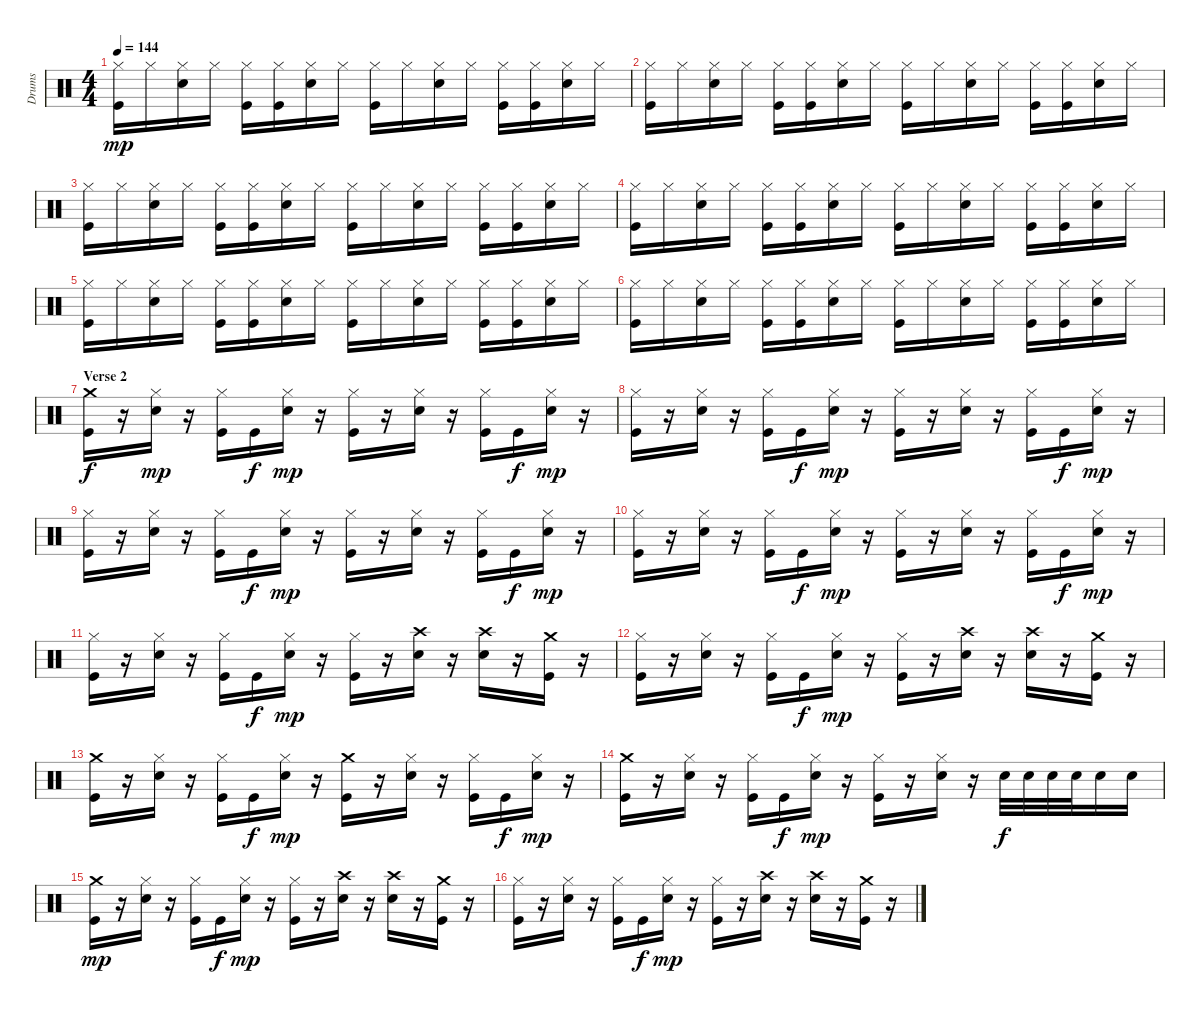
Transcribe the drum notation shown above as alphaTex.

\track ("Drums" "Drums") {instrument percussion}
\staff {score}
\articulation defaults
\ts (4 4)
\tempo 144
\clef neutral
\ks c
("Hi-Hat (closed)" "Kick (hit)").16{dy mp} "Hi-Hat (closed)".16 ("Hi-Hat (closed)" "Electric Snare (hit)").16 "Hi-Hat (closed)".16 ("Hi-Hat (closed)" "Kick (hit)").16 ("Hi-Hat (closed)" "Kick (hit)").16 ("Hi-Hat (closed)" "Electric Snare (hit)").16 "Hi-Hat (closed)".16 ("Hi-Hat (closed)" "Kick (hit)").16 "Hi-Hat (closed)".16 ("Hi-Hat (closed)" "Electric Snare (hit)").16 "Hi-Hat (closed)".16 ("Hi-Hat (closed)" "Kick (hit)").16 ("Hi-Hat (closed)" "Kick (hit)").16 ("Hi-Hat (closed)" "Electric Snare (hit)").16 "Hi-Hat (closed)".16 |
("Hi-Hat (closed)" "Kick (hit)").16 "Hi-Hat (closed)".16 ("Hi-Hat (closed)" "Electric Snare (hit)").16 "Hi-Hat (closed)".16 ("Hi-Hat (closed)" "Kick (hit)").16 ("Hi-Hat (closed)" "Kick (hit)").16 ("Hi-Hat (closed)" "Electric Snare (hit)").16 "Hi-Hat (closed)".16 ("Hi-Hat (closed)" "Kick (hit)").16 "Hi-Hat (closed)".16 ("Hi-Hat (closed)" "Electric Snare (hit)").16 "Hi-Hat (closed)".16 ("Hi-Hat (closed)" "Kick (hit)").16 ("Hi-Hat (closed)" "Kick (hit)").16 ("Hi-Hat (closed)" "Electric Snare (hit)").16 "Hi-Hat (closed)".16 |
("Hi-Hat (closed)" "Kick (hit)").16 "Hi-Hat (closed)".16 ("Hi-Hat (closed)" "Electric Snare (hit)").16 "Hi-Hat (closed)".16 ("Hi-Hat (closed)" "Kick (hit)").16 ("Hi-Hat (closed)" "Kick (hit)").16 ("Hi-Hat (closed)" "Electric Snare (hit)").16 "Hi-Hat (closed)".16 ("Hi-Hat (closed)" "Kick (hit)").16 "Hi-Hat (closed)".16 ("Hi-Hat (closed)" "Electric Snare (hit)").16 "Hi-Hat (closed)".16 ("Hi-Hat (closed)" "Kick (hit)").16 ("Hi-Hat (closed)" "Kick (hit)").16 ("Hi-Hat (closed)" "Electric Snare (hit)").16 "Hi-Hat (closed)".16 |
("Hi-Hat (closed)" "Kick (hit)").16 "Hi-Hat (closed)".16 ("Hi-Hat (closed)" "Electric Snare (hit)").16 "Hi-Hat (closed)".16 ("Hi-Hat (closed)" "Kick (hit)").16 ("Hi-Hat (closed)" "Kick (hit)").16 ("Hi-Hat (closed)" "Electric Snare (hit)").16 "Hi-Hat (closed)".16 ("Hi-Hat (closed)" "Kick (hit)").16 "Hi-Hat (closed)".16 ("Hi-Hat (closed)" "Electric Snare (hit)").16 "Hi-Hat (closed)".16 ("Hi-Hat (closed)" "Kick (hit)").16 ("Hi-Hat (closed)" "Kick (hit)").16 ("Hi-Hat (closed)" "Electric Snare (hit)").16 "Hi-Hat (closed)".16 |
("Hi-Hat (closed)" "Kick (hit)").16 "Hi-Hat (closed)".16 ("Hi-Hat (closed)" "Electric Snare (hit)").16 "Hi-Hat (closed)".16 ("Hi-Hat (closed)" "Kick (hit)").16 ("Hi-Hat (closed)" "Kick (hit)").16 ("Hi-Hat (closed)" "Electric Snare (hit)").16 "Hi-Hat (closed)".16 ("Hi-Hat (closed)" "Kick (hit)").16 "Hi-Hat (closed)".16 ("Hi-Hat (closed)" "Electric Snare (hit)").16 "Hi-Hat (closed)".16 ("Hi-Hat (closed)" "Kick (hit)").16 ("Hi-Hat (closed)" "Kick (hit)").16 ("Hi-Hat (closed)" "Electric Snare (hit)").16 "Hi-Hat (closed)".16 |
("Hi-Hat (closed)" "Kick (hit)").16 "Hi-Hat (closed)".16 ("Hi-Hat (closed)" "Electric Snare (hit)").16 "Hi-Hat (closed)".16 ("Hi-Hat (closed)" "Kick (hit)").16 ("Hi-Hat (closed)" "Kick (hit)").16 ("Hi-Hat (closed)" "Electric Snare (hit)").16 "Hi-Hat (closed)".16 ("Hi-Hat (closed)" "Kick (hit)").16 "Hi-Hat (closed)".16 ("Hi-Hat (closed)" "Electric Snare (hit)").16 "Hi-Hat (closed)".16 ("Hi-Hat (closed)" "Kick (hit)").16 ("Hi-Hat (closed)" "Kick (hit)").16 ("Hi-Hat (closed)" "Electric Snare (hit)").16 "Hi-Hat (closed)".16 |
\section ("" "Verse 2")
("Crash medium (hit)" "Kick (hit)").16{dy f} r.16 ("Hi-Hat (closed)" "Electric Snare (hit)").16{dy mp} r.16 ("Hi-Hat (closed)" "Kick (hit)").16 "Kick (hit)".16{dy f} ("Hi-Hat (closed)" "Electric Snare (hit)").16{dy mp} r.16 ("Hi-Hat (closed)" "Kick (hit)").16 r.16 ("Hi-Hat (closed)" "Electric Snare (hit)").16 r.16 ("Hi-Hat (closed)" "Kick (hit)").16 "Kick (hit)".16{dy f} ("Hi-Hat (closed)" "Electric Snare (hit)").16{dy mp} r.16 |
("Hi-Hat (closed)" "Kick (hit)").16 r.16 ("Hi-Hat (closed)" "Electric Snare (hit)").16 r.16 ("Hi-Hat (closed)" "Kick (hit)").16 "Kick (hit)".16{dy f} ("Hi-Hat (closed)" "Electric Snare (hit)").16{dy mp} r.16 ("Hi-Hat (closed)" "Kick (hit)").16 r.16 ("Hi-Hat (closed)" "Electric Snare (hit)").16 r.16 ("Hi-Hat (closed)" "Kick (hit)").16 "Kick (hit)".16{dy f} ("Hi-Hat (closed)" "Electric Snare (hit)").16{dy mp} r.16 |
("Hi-Hat (closed)" "Kick (hit)").16 r.16 ("Hi-Hat (closed)" "Electric Snare (hit)").16 r.16 ("Hi-Hat (closed)" "Kick (hit)").16 "Kick (hit)".16{dy f} ("Hi-Hat (closed)" "Electric Snare (hit)").16{dy mp} r.16 ("Hi-Hat (closed)" "Kick (hit)").16 r.16 ("Hi-Hat (closed)" "Electric Snare (hit)").16 r.16 ("Hi-Hat (closed)" "Kick (hit)").16 "Kick (hit)".16{dy f} ("Hi-Hat (closed)" "Electric Snare (hit)").16{dy mp} r.16 |
("Hi-Hat (closed)" "Kick (hit)").16 r.16 ("Hi-Hat (closed)" "Electric Snare (hit)").16 r.16 ("Hi-Hat (closed)" "Kick (hit)").16 "Kick (hit)".16{dy f} ("Hi-Hat (closed)" "Electric Snare (hit)").16{dy mp} r.16 ("Hi-Hat (closed)" "Kick (hit)").16 r.16 ("Hi-Hat (closed)" "Electric Snare (hit)").16 r.16 ("Hi-Hat (closed)" "Kick (hit)").16 "Kick (hit)".16{dy f} ("Hi-Hat (closed)" "Electric Snare (hit)").16{dy mp} r.16 |
("Hi-Hat (closed)" "Kick (hit)").16 r.16 ("Hi-Hat (closed)" "Electric Snare (hit)").16 r.16 ("Hi-Hat (closed)" "Kick (hit)").16 "Kick (hit)".16{dy f} ("Hi-Hat (closed)" "Electric Snare (hit)").16{dy mp} r.16 ("Hi-Hat (closed)" "Kick (hit)").16 r.16 ("Crash high (hit)" "Electric Snare (hit)").16 r.16 ("Crash high (hit)" "Electric Snare (hit)").16 r.16 ("Crash medium (hit)" "Kick (hit)").16 r.16 |
("Hi-Hat (closed)" "Kick (hit)").16 r.16 ("Hi-Hat (closed)" "Electric Snare (hit)").16 r.16 ("Hi-Hat (closed)" "Kick (hit)").16 "Kick (hit)".16{dy f} ("Hi-Hat (closed)" "Electric Snare (hit)").16{dy mp} r.16 ("Hi-Hat (closed)" "Kick (hit)").16 r.16 ("Crash high (hit)" "Electric Snare (hit)").16 r.16 ("Crash high (hit)" "Electric Snare (hit)").16 r.16 ("Crash medium (hit)" "Kick (hit)").16 r.16 |
("Crash medium (hit)" "Kick (hit)").16 r.16 ("Hi-Hat (closed)" "Electric Snare (hit)").16 r.16 ("Hi-Hat (closed)" "Kick (hit)").16 "Kick (hit)".16{dy f} ("Hi-Hat (closed)" "Electric Snare (hit)").16{dy mp} r.16 ("Crash medium (hit)" "Kick (hit)").16 r.16 ("Hi-Hat (closed)" "Electric Snare (hit)").16 r.16 ("Hi-Hat (closed)" "Kick (hit)").16 "Kick (hit)".16{dy f} ("Hi-Hat (closed)" "Electric Snare (hit)").16{dy mp} r.16 |
("Crash medium (hit)" "Kick (hit)").16 r.16 ("Hi-Hat (closed)" "Electric Snare (hit)").16 r.16 ("Hi-Hat (closed)" "Kick (hit)").16 "Kick (hit)".16{dy f} ("Hi-Hat (closed)" "Electric Snare (hit)").16{dy mp} r.16 ("Hi-Hat (closed)" "Kick (hit)").16 r.16 ("Hi-Hat (closed)" "Electric Snare (hit)").16 r.16 "Electric Snare (hit)".32{dy f} "Electric Snare (hit)".32 "Electric Snare (hit)".32 "Electric Snare (hit)".32 "Electric Snare (hit)".16 "Electric Snare (hit)".16 |
("Crash medium (hit)" "Kick (hit)").16{dy mp} r.16 ("Hi-Hat (closed)" "Electric Snare (hit)").16 r.16 ("Hi-Hat (closed)" "Kick (hit)").16 "Kick (hit)".16{dy f} ("Hi-Hat (closed)" "Electric Snare (hit)").16{dy mp} r.16 ("Hi-Hat (closed)" "Kick (hit)").16 r.16 ("Crash high (hit)" "Electric Snare (hit)").16 r.16 ("Crash high (hit)" "Electric Snare (hit)").16 r.16 ("Crash medium (hit)" "Kick (hit)").16 r.16 |
("Hi-Hat (closed)" "Kick (hit)").16 r.16 ("Hi-Hat (closed)" "Electric Snare (hit)").16 r.16 ("Hi-Hat (closed)" "Kick (hit)").16 "Kick (hit)".16{dy f} ("Hi-Hat (closed)" "Electric Snare (hit)").16{dy mp} r.16 ("Hi-Hat (closed)" "Kick (hit)").16 r.16 ("Crash high (hit)" "Electric Snare (hit)").16 r.16 ("Crash high (hit)" "Electric Snare (hit)").16 r.16 ("Crash medium (hit)" "Kick (hit)").16 r.16
